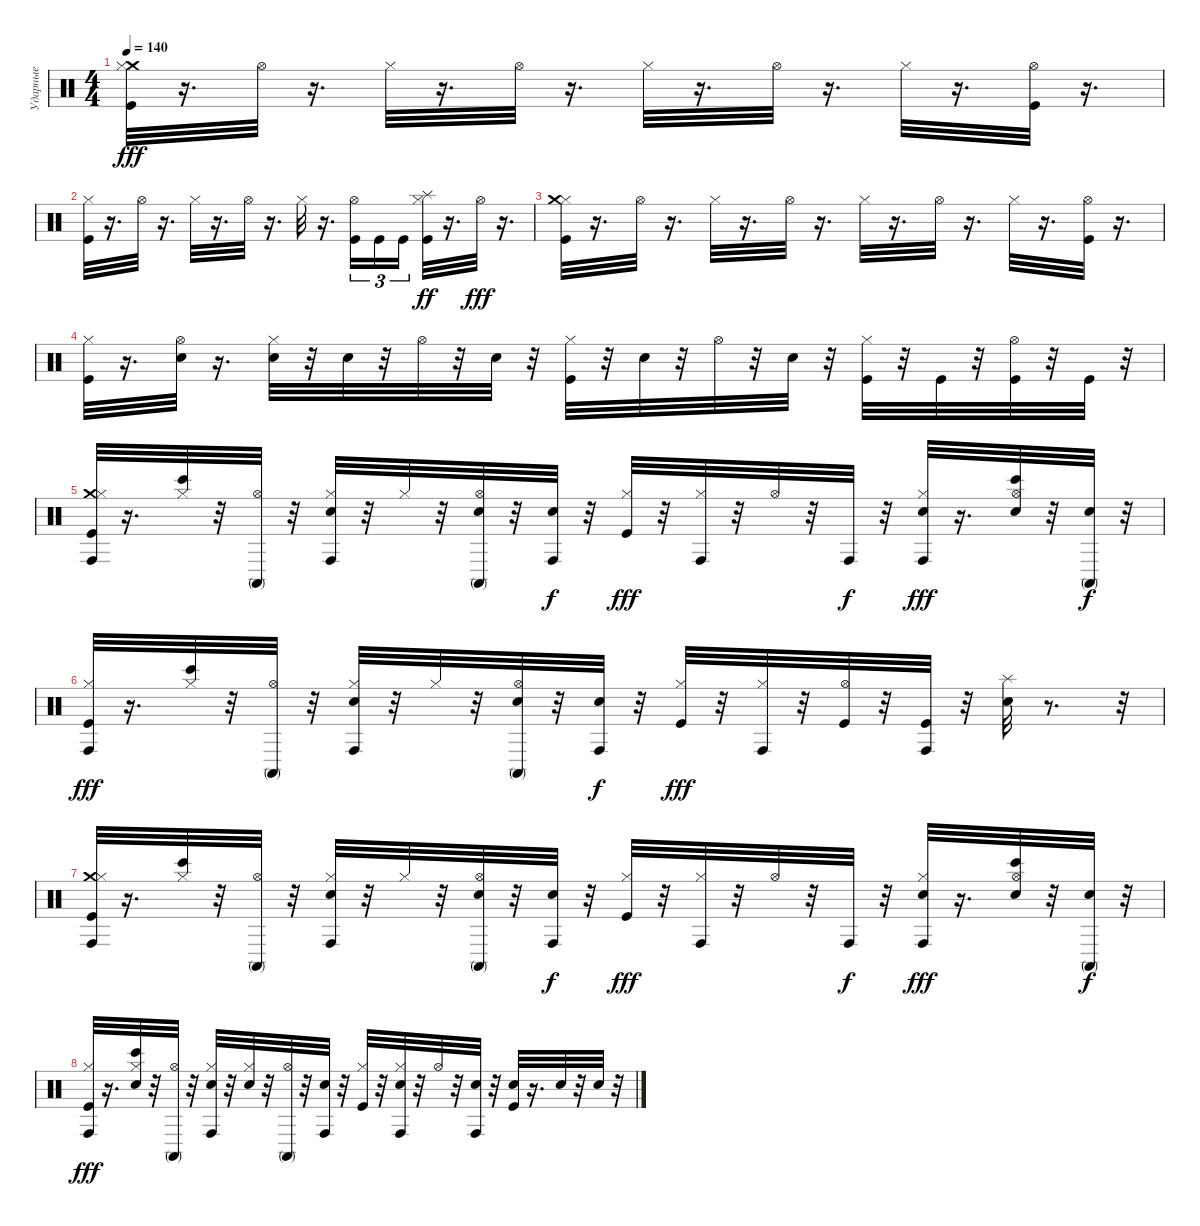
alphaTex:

\track ("Ударные" "Ударные") {instrument percussion}
\staff {score}
\articulation defaults
\ts (4 4)
\tempo 140
\clef neutral
\ks c
("Crash medium (hit)" "Kick (hit)" "Hi-Hat (closed)").32{dy fff} r.16{d} "Hi-Hat (open)".32 r.16{d} "Hi-Hat (closed)".32 r.16{d} "Hi-Hat (open)".32 r.16{d} "Hi-Hat (closed)".32 r.16{d} "Hi-Hat (open)".32 r.16{d} "Hi-Hat (closed)".32 r.16{d} ("Kick (hit)" "Hi-Hat (open)").32 r.16{d} |
("Kick (hit)" "Hi-Hat (closed)").32 r.16{d} "Hi-Hat (open)".32 r.16{d} "Hi-Hat (closed)".32 r.16{d} "Hi-Hat (open)".32 r.16{d} "Hi-Hat (closed)".32 r.16{d} ("Hi-Hat (open)" "Kick (hit)").16{tu (3 2)} "Kick (hit)".16{tu (3 2)} "Kick (hit)".16{tu (3 2)} ("Hi-Hat (closed)" "Kick (hit)" "Splash (hit)").32{dy ff} r.16{d} "Hi-Hat (open)".32{dy fff} r.16{d} |
("Hi-Hat (closed)" "Kick (hit)" "Crash medium (hit)").32 r.16{d} "Hi-Hat (open)".32 r.16{d} "Hi-Hat (closed)".32 r.16{d} "Hi-Hat (open)".32 r.16{d} "Hi-Hat (closed)".32 r.16{d} "Hi-Hat (open)".32 r.16{d} "Hi-Hat (closed)".32 r.16{d} ("Hi-Hat (open)" "Kick (hit)").32 r.16{d} |
("Hi-Hat (closed)" "Kick (hit)").32 r.16{d} ("Hi-Hat (open)" "Electric Snare (hit)").32 r.16{d} ("Hi-Hat (closed)" "Electric Snare (hit)").32 r.32 "Electric Snare (hit)".32 r.32 "Hi-Hat (open)".32 r.32 "Electric Snare (hit)".32 r.32 ("Hi-Hat (closed)" "Kick (hit)").32 r.32 "Electric Snare (hit)".32 r.32 "Hi-Hat (open)".32 r.32 "Electric Snare (hit)".32 r.32 ("Hi-Hat (closed)" "Kick (hit)").32 r.32 "Kick (hit)".32 r.32 ("Hi-Hat (open)" "Kick (hit)").32 r.32 "Kick (hit)".32 r.32 |
("Crash medium (hit)" "Kick (hit)" "Hi-Hat (closed)" "Conga high (hit)").32 r.16{d} ("Hi-Hat (closed)" "Bongo High (hit)").32 r.32 ("Hi-Hat (open)" "Conga high (mute)").32 r.32 ("Electric Snare (hit)" "Hi-Hat (closed)" "Conga high (hit)").32 r.32 "Hi-Hat (closed)".32 r.32 ("Electric Snare (hit)" "Hi-Hat (open)" "Conga high (mute)").32 r.32 ("Electric Snare (hit)" "Conga high (hit)").32{dy f} r.32 ("Kick (hit)" "Hi-Hat (closed)").32{dy fff} r.32 ("Hi-Hat (closed)" "Conga high (hit)").32 r.32 "Hi-Hat (open)".32 r.32 "Conga high (hit)".32{dy f} r.32 ("Electric Snare (hit)" "Hi-Hat (closed)" "Conga high (hit)").32{dy fff} r.16{d} ("Electric Snare (hit)" "Hi-Hat (open)" "Bongo High (hit)").32 r.32 ("Electric Snare (hit)" "Conga high (mute)").32{dy f} r.32 |
("Hi-Hat (closed)" "Kick (hit)" "Conga high (hit)").32{dy fff} r.16{d} ("Hi-Hat (closed)" "Bongo High (hit)").32 r.32 ("Hi-Hat (open)" "Conga high (mute)").32 r.32 ("Electric Snare (hit)" "Hi-Hat (closed)" "Conga high (hit)").32 r.32 "Hi-Hat (closed)".32 r.32 ("Electric Snare (hit)" "Hi-Hat (open)" "Conga high (mute)").32 r.32 ("Electric Snare (hit)" "Conga high (hit)").32{dy f} r.32 ("Kick (hit)" "Hi-Hat (closed)").32{dy fff} r.32 ("Hi-Hat (closed)" "Conga high (hit)").32 r.32 ("Hi-Hat (open)" "Kick (hit)").32 r.32 ("Kick (hit)" "Conga high (hit)").32 r.32 ("Electric Snare (hit)" "Splash (hit)").32 r.8{d} r.32 |
("Crash medium (hit)" "Kick (hit)" "Hi-Hat (closed)" "Conga high (hit)").32 r.16{d} ("Hi-Hat (closed)" "Bongo High (hit)").32 r.32 ("Hi-Hat (open)" "Conga high (mute)").32 r.32 ("Electric Snare (hit)" "Hi-Hat (closed)" "Conga high (hit)").32 r.32 "Hi-Hat (closed)".32 r.32 ("Electric Snare (hit)" "Hi-Hat (open)" "Conga high (mute)").32 r.32 ("Electric Snare (hit)" "Conga high (hit)").32{dy f} r.32 ("Kick (hit)" "Hi-Hat (closed)").32{dy fff} r.32 ("Hi-Hat (closed)" "Conga high (hit)").32 r.32 "Hi-Hat (open)".32 r.32 "Conga high (hit)".32{dy f} r.32 ("Electric Snare (hit)" "Hi-Hat (closed)" "Conga high (hit)").32{dy fff} r.16{d} ("Electric Snare (hit)" "Hi-Hat (open)" "Bongo High (hit)").32 r.32 ("Electric Snare (hit)" "Conga high (mute)").32{dy f} r.32 |
("Hi-Hat (closed)" "Kick (hit)" "Conga high (hit)").32{dy fff} r.16{d} ("Hi-Hat (closed)" "Bongo High (hit)" "Electric Snare (hit)").32 r.32 ("Hi-Hat (open)" "Conga high (mute)").32 r.32 ("Hi-Hat (closed)" "Conga high (hit)" "Electric Snare (hit)").32 r.32 ("Hi-Hat (closed)" "Electric Snare (hit)").32 r.32 ("Hi-Hat (open)" "Conga high (mute)").32 r.32 ("Conga high (hit)" "Electric Snare (hit)").32 r.32 ("Hi-Hat (closed)" "Kick (hit)").32 r.32 ("Hi-Hat (closed)" "Conga high (hit)" "Electric Snare (hit)").32 r.32 "Hi-Hat (open)".32 r.32 ("Conga high (hit)" "Electric Snare (hit)").32 r.32 ("Electric Snare (hit)" "Kick (hit)").32 r.16{d} "Electric Snare (hit)".32 r.32 "Electric Snare (hit)".32 r.32
